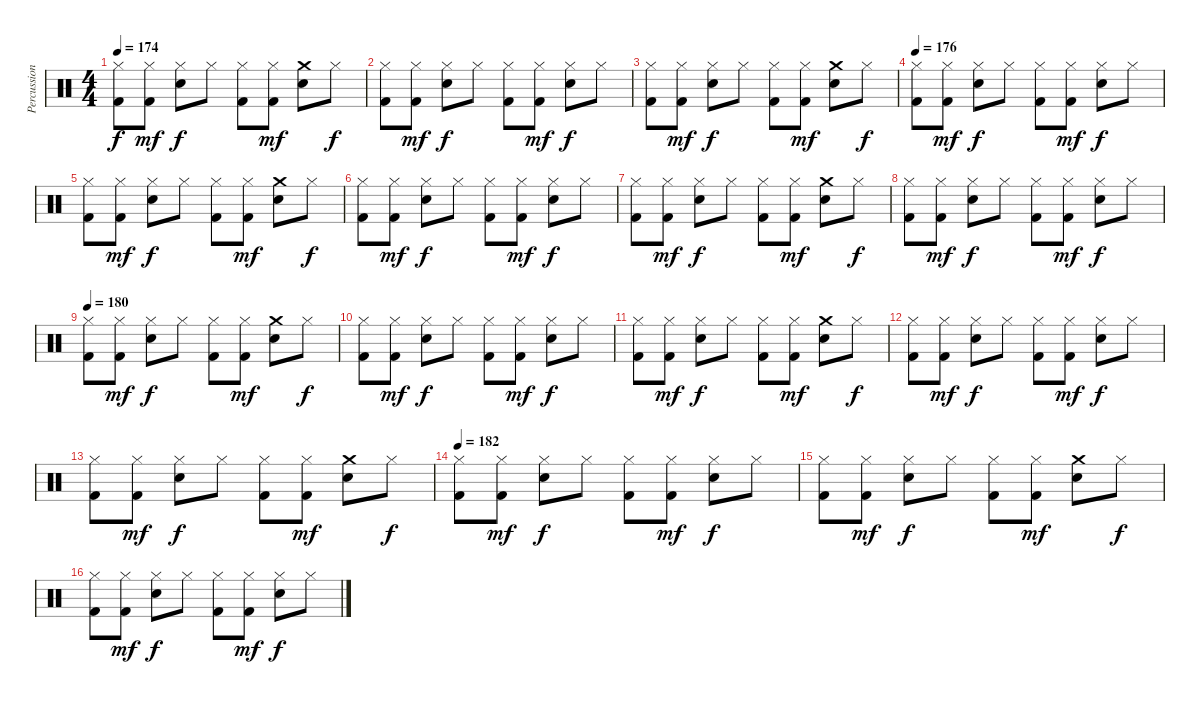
\track ("Percussion" "Percussion") {instrument percussion}
\staff {score}
\articulation defaults
\ts (4 4)
\tempo 174
\clef neutral
\ks c
("Hi-Hat (closed)" "Kick (hit) 2").8{dy f} ("Hi-Hat (closed)" "Kick (hit) 2").8{dy mf} ("Hi-Hat (closed)" "Snare (hit) 2").8{dy f} "Hi-Hat (closed)".8 ("Hi-Hat (closed)" "Kick (hit) 2").8 ("Hi-Hat (closed)" "Kick (hit) 2").8{dy mf} ("Crash medium (hit)" "Snare (hit) 2").8 "Hi-Hat (closed)".8{dy f} |
("Hi-Hat (closed)" "Kick (hit) 2").8 ("Hi-Hat (closed)" "Kick (hit) 2").8{dy mf} ("Hi-Hat (closed)" "Snare (hit) 2").8{dy f} "Hi-Hat (closed)".8 ("Hi-Hat (closed)" "Kick (hit) 2").8 ("Hi-Hat (closed)" "Kick (hit) 2").8{dy mf} ("Hi-Hat (closed)" "Snare (hit) 2").8{dy f} "Hi-Hat (closed)".8 |
("Hi-Hat (closed)" "Kick (hit) 2").8 ("Hi-Hat (closed)" "Kick (hit) 2").8{dy mf} ("Hi-Hat (closed)" "Snare (hit) 2").8{dy f} "Hi-Hat (closed)".8 ("Hi-Hat (closed)" "Kick (hit) 2").8 ("Hi-Hat (closed)" "Kick (hit) 2").8{dy mf} ("Crash medium (hit)" "Snare (hit) 2").8 "Hi-Hat (closed)".8{dy f} |
\tempo 176
("Hi-Hat (closed)" "Kick (hit) 2").8 ("Hi-Hat (closed)" "Kick (hit) 2").8{dy mf} ("Hi-Hat (closed)" "Snare (hit) 2").8{dy f} "Hi-Hat (closed)".8 ("Hi-Hat (closed)" "Kick (hit) 2").8 ("Hi-Hat (closed)" "Kick (hit) 2").8{dy mf} ("Hi-Hat (closed)" "Snare (hit) 2").8{dy f} "Hi-Hat (closed)".8 |
("Hi-Hat (closed)" "Kick (hit) 2").8 ("Hi-Hat (closed)" "Kick (hit) 2").8{dy mf} ("Hi-Hat (closed)" "Snare (hit) 2").8{dy f} "Hi-Hat (closed)".8 ("Hi-Hat (closed)" "Kick (hit) 2").8 ("Hi-Hat (closed)" "Kick (hit) 2").8{dy mf} ("Crash medium (hit)" "Snare (hit) 2").8 "Hi-Hat (closed)".8{dy f} |
("Hi-Hat (closed)" "Kick (hit) 2").8 ("Hi-Hat (closed)" "Kick (hit) 2").8{dy mf} ("Hi-Hat (closed)" "Snare (hit) 2").8{dy f} "Hi-Hat (closed)".8 ("Hi-Hat (closed)" "Kick (hit) 2").8 ("Hi-Hat (closed)" "Kick (hit) 2").8{dy mf} ("Hi-Hat (closed)" "Snare (hit) 2").8{dy f} "Hi-Hat (closed)".8 |
("Hi-Hat (closed)" "Kick (hit) 2").8 ("Hi-Hat (closed)" "Kick (hit) 2").8{dy mf} ("Hi-Hat (closed)" "Snare (hit) 2").8{dy f} "Hi-Hat (closed)".8 ("Hi-Hat (closed)" "Kick (hit) 2").8 ("Hi-Hat (closed)" "Kick (hit) 2").8{dy mf} ("Crash medium (hit)" "Snare (hit) 2").8 "Hi-Hat (closed)".8{dy f} |
("Hi-Hat (closed)" "Kick (hit) 2").8 ("Hi-Hat (closed)" "Kick (hit) 2").8{dy mf} ("Hi-Hat (closed)" "Snare (hit) 2").8{dy f} "Hi-Hat (closed)".8 ("Hi-Hat (closed)" "Kick (hit) 2").8 ("Hi-Hat (closed)" "Kick (hit) 2").8{dy mf} ("Hi-Hat (closed)" "Snare (hit) 2").8{dy f} "Hi-Hat (closed)".8 |
\tempo 180
("Hi-Hat (closed)" "Kick (hit) 2").8 ("Hi-Hat (closed)" "Kick (hit) 2").8{dy mf} ("Hi-Hat (closed)" "Snare (hit) 2").8{dy f} "Hi-Hat (closed)".8 ("Hi-Hat (closed)" "Kick (hit) 2").8 ("Hi-Hat (closed)" "Kick (hit) 2").8{dy mf} ("Crash medium (hit)" "Snare (hit) 2").8 "Hi-Hat (closed)".8{dy f} |
("Hi-Hat (closed)" "Kick (hit) 2").8 ("Hi-Hat (closed)" "Kick (hit) 2").8{dy mf} ("Hi-Hat (closed)" "Snare (hit) 2").8{dy f} "Hi-Hat (closed)".8 ("Hi-Hat (closed)" "Kick (hit) 2").8 ("Hi-Hat (closed)" "Kick (hit) 2").8{dy mf} ("Hi-Hat (closed)" "Snare (hit) 2").8{dy f} "Hi-Hat (closed)".8 |
("Hi-Hat (closed)" "Kick (hit) 2").8 ("Hi-Hat (closed)" "Kick (hit) 2").8{dy mf} ("Hi-Hat (closed)" "Snare (hit) 2").8{dy f} "Hi-Hat (closed)".8 ("Hi-Hat (closed)" "Kick (hit) 2").8 ("Hi-Hat (closed)" "Kick (hit) 2").8{dy mf} ("Crash medium (hit)" "Snare (hit) 2").8 "Hi-Hat (closed)".8{dy f} |
("Hi-Hat (closed)" "Kick (hit) 2").8 ("Hi-Hat (closed)" "Kick (hit) 2").8{dy mf} ("Hi-Hat (closed)" "Snare (hit) 2").8{dy f} "Hi-Hat (closed)".8 ("Hi-Hat (closed)" "Kick (hit) 2").8 ("Hi-Hat (closed)" "Kick (hit) 2").8{dy mf} ("Hi-Hat (closed)" "Snare (hit) 2").8{dy f} "Hi-Hat (closed)".8 |
("Hi-Hat (closed)" "Kick (hit) 2").8 ("Hi-Hat (closed)" "Kick (hit) 2").8{dy mf} ("Hi-Hat (closed)" "Snare (hit) 2").8{dy f} "Hi-Hat (closed)".8 ("Hi-Hat (closed)" "Kick (hit) 2").8 ("Hi-Hat (closed)" "Kick (hit) 2").8{dy mf} ("Crash medium (hit)" "Snare (hit) 2").8 "Hi-Hat (closed)".8{dy f} |
\tempo 182
("Hi-Hat (closed)" "Kick (hit) 2").8 ("Hi-Hat (closed)" "Kick (hit) 2").8{dy mf} ("Hi-Hat (closed)" "Snare (hit) 2").8{dy f} "Hi-Hat (closed)".8 ("Hi-Hat (closed)" "Kick (hit) 2").8 ("Hi-Hat (closed)" "Kick (hit) 2").8{dy mf} ("Hi-Hat (closed)" "Snare (hit) 2").8{dy f} "Hi-Hat (closed)".8 |
("Hi-Hat (closed)" "Kick (hit) 2").8 ("Hi-Hat (closed)" "Kick (hit) 2").8{dy mf} ("Hi-Hat (closed)" "Snare (hit) 2").8{dy f} "Hi-Hat (closed)".8 ("Hi-Hat (closed)" "Kick (hit) 2").8 ("Hi-Hat (closed)" "Kick (hit) 2").8{dy mf} ("Crash medium (hit)" "Snare (hit) 2").8 "Hi-Hat (closed)".8{dy f} |
("Hi-Hat (closed)" "Kick (hit) 2").8 ("Hi-Hat (closed)" "Kick (hit) 2").8{dy mf} ("Hi-Hat (closed)" "Snare (hit) 2").8{dy f} "Hi-Hat (closed)".8 ("Hi-Hat (closed)" "Kick (hit) 2").8 ("Hi-Hat (closed)" "Kick (hit) 2").8{dy mf} ("Hi-Hat (closed)" "Snare (hit) 2").8{dy f} "Hi-Hat (closed)".8
